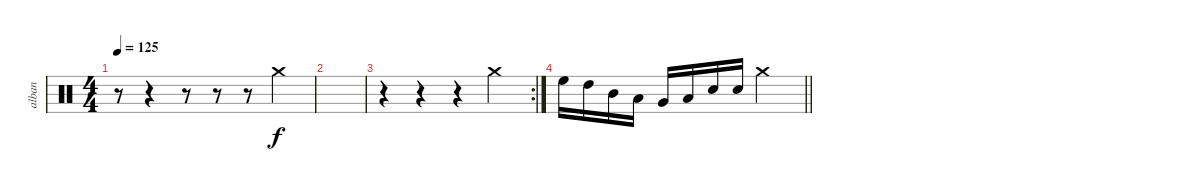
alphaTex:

\track ("alban" "alban") {instrument percussion}
\staff {score}
\articulation defaults
\ts (4 4)
\tempo 125
\clef neutral
\ks c
r.8{dy f} r.4 r.8 r.8 r.8 "Crash medium (hit)".4 |
|
\rc 2
r.4 r.4 r.4 "Crash medium (hit)".4 |
\barLineRight lightlight "High Floor Tom (hit)".16 "High Tom (hit)".16 "Mid Tom (hit)".16 "Low Tom (hit)".16 "Very Low Tom (hit)".16 "Low Floor Tom (hit)".16 "Snare (hit) 2".16 "Snare (hit) 2".16 "Crash medium (hit)".2
